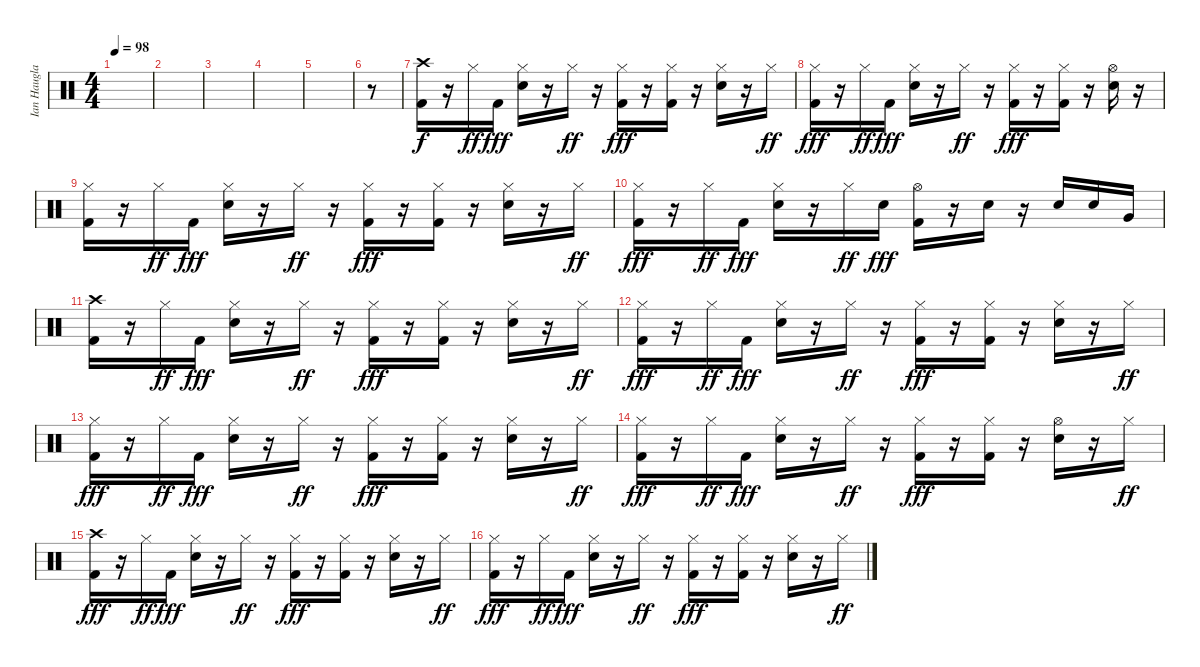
\track ("Ian Haugland" "Ian Haugla") {instrument percussion}
\staff {score}
\articulation defaults
\ts (4 4)
\tempo 98
\clef neutral
\ks c
|
|
|
|
|
r.8 |
("Crash high (hit)" "Kick (hit) 2").16 r.16 "Hi-Hat (closed)".16{dy ff} "Kick (hit) 2".16{dy fff} ("Hi-Hat (closed)" "Electric Snare (hit)").16 r.16 "Hi-Hat (closed)".16{dy ff} r.16 ("Hi-Hat (closed)" "Kick (hit) 2").16{dy fff} r.16 ("Hi-Hat (closed)" "Kick (hit) 2").16 r.16 ("Hi-Hat (closed)" "Electric Snare (hit)").16 r.16 "Hi-Hat (closed)".16{dy ff} |
("Hi-Hat (closed)" "Kick (hit) 2").16{dy fff} r.16 "Hi-Hat (closed)".16{dy ff} "Kick (hit) 2".16{dy fff} ("Hi-Hat (closed)" "Electric Snare (hit)").16 r.16 "Hi-Hat (closed)".16{dy ff} r.16 ("Hi-Hat (closed)" "Kick (hit) 2").16{dy fff} r.16 ("Hi-Hat (closed)" "Kick (hit) 2").16 r.16 ("Hi-Hat (open)" "Electric Snare (hit)").16 r.16 |
("Hi-Hat (closed)" "Kick (hit) 2").16 r.16 "Hi-Hat (closed)".16{dy ff} "Kick (hit) 2".16{dy fff} ("Hi-Hat (closed)" "Electric Snare (hit)").16 r.16 "Hi-Hat (closed)".16{dy ff} r.16 ("Hi-Hat (closed)" "Kick (hit) 2").16{dy fff} r.16 ("Hi-Hat (closed)" "Kick (hit) 2").16 r.16 ("Hi-Hat (closed)" "Electric Snare (hit)").16 r.16 "Hi-Hat (closed)".16{dy ff} |
("Hi-Hat (closed)" "Kick (hit) 2").16{dy fff} r.16 "Hi-Hat (closed)".16{dy ff} "Kick (hit) 2".16{dy fff} ("Hi-Hat (closed)" "Electric Snare (hit)").16 r.16 "Hi-Hat (closed)".16{dy ff} "Electric Snare (hit)".16{dy fff} ("Hi-Hat (open)" "Kick (hit) 2").16 r.16 "Electric Snare (hit)".16 r.16 "Electric Snare (hit)".16 "Electric Snare (hit)".16 "Very Low Tom (hit)".16 |
("Crash high (hit)" "Kick (hit) 2").16 r.16 "Hi-Hat (closed)".16{dy ff} "Kick (hit) 2".16{dy fff} ("Hi-Hat (closed)" "Electric Snare (hit)").16 r.16 "Hi-Hat (closed)".16{dy ff} r.16 ("Hi-Hat (closed)" "Kick (hit) 2").16{dy fff} r.16 ("Hi-Hat (closed)" "Kick (hit) 2").16 r.16 ("Hi-Hat (closed)" "Electric Snare (hit)").16 r.16 "Hi-Hat (closed)".16{dy ff} |
("Hi-Hat (closed)" "Kick (hit) 2").16{dy fff} r.16 "Hi-Hat (closed)".16{dy ff} "Kick (hit) 2".16{dy fff} ("Hi-Hat (closed)" "Electric Snare (hit)").16 r.16 "Hi-Hat (closed)".16{dy ff} r.16 ("Hi-Hat (closed)" "Kick (hit) 2").16{dy fff} r.16 ("Hi-Hat (closed)" "Kick (hit) 2").16 r.16 ("Hi-Hat (closed)" "Electric Snare (hit)").16 r.16 "Hi-Hat (closed)".16{dy ff} |
("Hi-Hat (closed)" "Kick (hit) 2").16{dy fff} r.16 "Hi-Hat (closed)".16{dy ff} "Kick (hit) 2".16{dy fff} ("Hi-Hat (closed)" "Electric Snare (hit)").16 r.16 "Hi-Hat (closed)".16{dy ff} r.16 ("Hi-Hat (closed)" "Kick (hit) 2").16{dy fff} r.16 ("Hi-Hat (closed)" "Kick (hit) 2").16 r.16 ("Hi-Hat (closed)" "Electric Snare (hit)").16 r.16 "Hi-Hat (closed)".16{dy ff} |
("Hi-Hat (closed)" "Kick (hit) 2").16{dy fff} r.16 "Hi-Hat (closed)".16{dy ff} "Kick (hit) 2".16{dy fff} ("Hi-Hat (closed)" "Electric Snare (hit)").16 r.16 "Hi-Hat (closed)".16{dy ff} r.16 ("Hi-Hat (closed)" "Kick (hit) 2").16{dy fff} r.16 ("Hi-Hat (closed)" "Kick (hit) 2").16 r.16 ("Hi-Hat (open)" "Electric Snare (hit)").16 r.16 "Hi-Hat (closed)".16{dy ff} |
("Crash high (hit)" "Kick (hit) 2").16{dy fff} r.16 "Hi-Hat (closed)".16{dy ff} "Kick (hit) 2".16{dy fff} ("Hi-Hat (closed)" "Electric Snare (hit)").16 r.16 "Hi-Hat (closed)".16{dy ff} r.16 ("Hi-Hat (closed)" "Kick (hit) 2").16{dy fff} r.16 ("Hi-Hat (closed)" "Kick (hit) 2").16 r.16 ("Hi-Hat (closed)" "Electric Snare (hit)").16 r.16 "Hi-Hat (closed)".16{dy ff} |
("Hi-Hat (closed)" "Kick (hit) 2").16{dy fff} r.16 "Hi-Hat (closed)".16{dy ff} "Kick (hit) 2".16{dy fff} ("Hi-Hat (closed)" "Electric Snare (hit)").16 r.16 "Hi-Hat (closed)".16{dy ff} r.16 ("Hi-Hat (closed)" "Kick (hit) 2").16{dy fff} r.16 ("Hi-Hat (closed)" "Kick (hit) 2").16 r.16 ("Hi-Hat (closed)" "Electric Snare (hit)").16 r.16 "Hi-Hat (closed)".16{dy ff}
